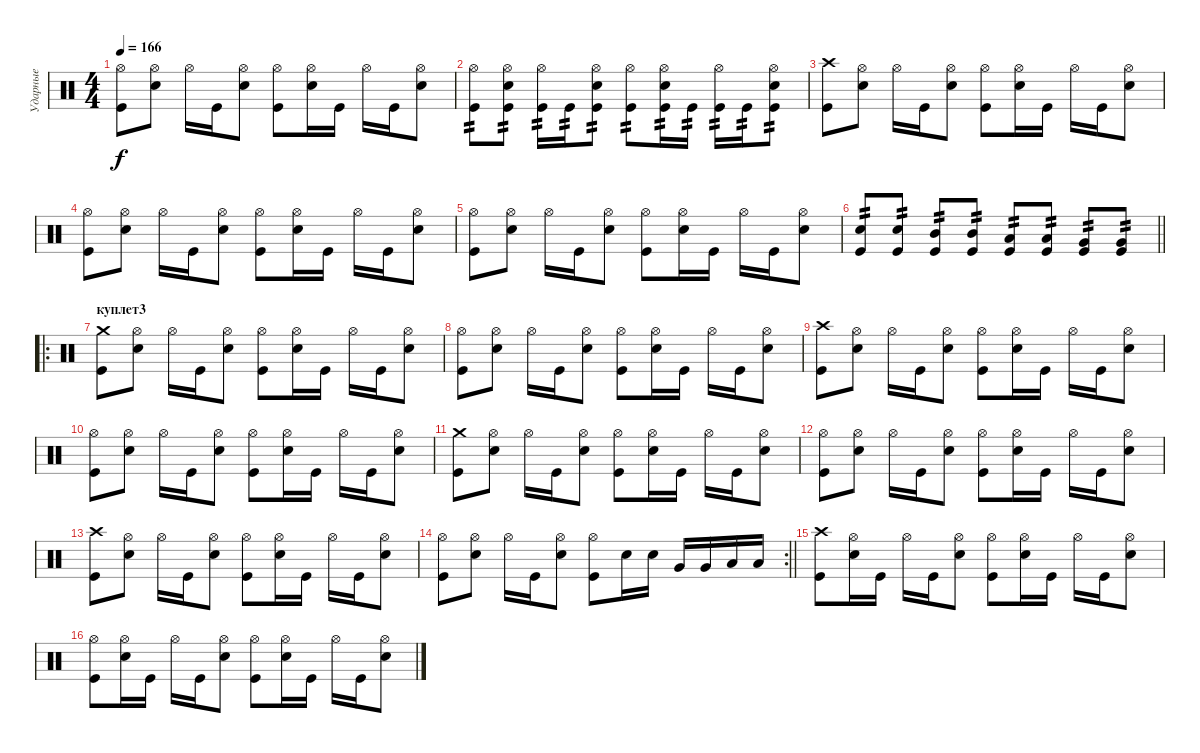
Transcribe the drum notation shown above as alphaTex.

\track ("Ударные" "Ударные") {instrument percussion}
\staff {score}
\articulation defaults
\ts (4 4)
\tempo 166
\clef neutral
\ks c
("Kick (hit)" "Hi-Hat (open)").8{dy f} ("Electric Snare (hit)" "Hi-Hat (open)").8 "Hi-Hat (open)".16 "Kick (hit)".16 ("Electric Snare (hit)" "Hi-Hat (open)").8 ("Kick (hit)" "Hi-Hat (open)").8 ("Electric Snare (hit)" "Hi-Hat (open)").16 "Kick (hit)".16 "Hi-Hat (open)".16 "Kick (hit)".16 ("Electric Snare (hit)" "Hi-Hat (open)").8 |
("Kick (hit)" "Hi-Hat (open)").8{tp 2} ("Electric Snare (hit)" "Hi-Hat (open)" "Kick (hit)").8{tp 2} ("Hi-Hat (open)" "Kick (hit)").16{tp 2} "Kick (hit)".16{tp 2} ("Electric Snare (hit)" "Hi-Hat (open)" "Kick (hit)").8{tp 2} ("Kick (hit)" "Hi-Hat (open)").8{tp 2} ("Electric Snare (hit)" "Hi-Hat (open)" "Kick (hit)").16{tp 2} "Kick (hit)".16{tp 2} ("Hi-Hat (open)" "Kick (hit)").16{tp 2} "Kick (hit)".16{tp 2} ("Electric Snare (hit)" "Hi-Hat (open)" "Kick (hit)").8{tp 2} |
("Kick (hit)" "Crash high (hit)").8 ("Electric Snare (hit)" "Hi-Hat (open)").8 "Hi-Hat (open)".16 "Kick (hit)".16 ("Electric Snare (hit)" "Hi-Hat (open)").8 ("Kick (hit)" "Hi-Hat (open)").8 ("Electric Snare (hit)" "Hi-Hat (open)").16 "Kick (hit)".16 "Hi-Hat (open)".16 "Kick (hit)".16 ("Electric Snare (hit)" "Hi-Hat (open)").8 |
("Kick (hit)" "Hi-Hat (open)").8 ("Electric Snare (hit)" "Hi-Hat (open)").8 "Hi-Hat (open)".16 "Kick (hit)".16 ("Electric Snare (hit)" "Hi-Hat (open)").8 ("Kick (hit)" "Hi-Hat (open)").8 ("Electric Snare (hit)" "Hi-Hat (open)").16 "Kick (hit)".16 "Hi-Hat (open)".16 "Kick (hit)".16 ("Electric Snare (hit)" "Hi-Hat (open)").8 |
("Kick (hit)" "Hi-Hat (open)").8 ("Electric Snare (hit)" "Hi-Hat (open)").8 "Hi-Hat (open)".16 "Kick (hit)".16 ("Electric Snare (hit)" "Hi-Hat (open)").8 ("Kick (hit)" "Hi-Hat (open)").8 ("Electric Snare (hit)" "Hi-Hat (open)").16 "Kick (hit)".16 "Hi-Hat (open)".16 "Kick (hit)".16 ("Electric Snare (hit)" "Hi-Hat (open)").8 |
\barLineRight lightlight
("Kick (hit)" "Electric Snare (hit)").8{tp 2} ("Kick (hit)" "Electric Snare (hit)").8{tp 2} ("Kick (hit)" "Mid Tom (hit)").8{tp 2} ("Kick (hit)" "Mid Tom (hit)").8{tp 2} ("Kick (hit)" "Low Tom (hit)").8{tp 2} ("Kick (hit)" "Low Tom (hit)").8{tp 2} ("Kick (hit)" "Very Low Tom (hit)").8{tp 2} ("Kick (hit)" "Very Low Tom (hit)").8{tp 2} |
\ro
\section ("" "куплет3")
("Kick (hit)" "Crash medium (hit)").8 ("Electric Snare (hit)" "Hi-Hat (open)").8 "Hi-Hat (open)".16 "Kick (hit)".16 ("Electric Snare (hit)" "Hi-Hat (open)").8 ("Kick (hit)" "Hi-Hat (open)").8 ("Electric Snare (hit)" "Hi-Hat (open)").16 "Kick (hit)".16 "Hi-Hat (open)".16 "Kick (hit)".16 ("Electric Snare (hit)" "Hi-Hat (open)").8 |
("Kick (hit)" "Hi-Hat (open)").8 ("Electric Snare (hit)" "Hi-Hat (open)").8 "Hi-Hat (open)".16 "Kick (hit)".16 ("Electric Snare (hit)" "Hi-Hat (open)").8 ("Kick (hit)" "Hi-Hat (open)").8 ("Electric Snare (hit)" "Hi-Hat (open)").16 "Kick (hit)".16 "Hi-Hat (open)".16 "Kick (hit)".16 ("Electric Snare (hit)" "Hi-Hat (open)").8 |
("Kick (hit)" "Crash high (hit)").8 ("Electric Snare (hit)" "Hi-Hat (open)").8 "Hi-Hat (open)".16 "Kick (hit)".16 ("Electric Snare (hit)" "Hi-Hat (open)").8 ("Kick (hit)" "Hi-Hat (open)").8 ("Electric Snare (hit)" "Hi-Hat (open)").16 "Kick (hit)".16 "Hi-Hat (open)".16 "Kick (hit)".16 ("Electric Snare (hit)" "Hi-Hat (open)").8 |
("Kick (hit)" "Hi-Hat (open)").8 ("Electric Snare (hit)" "Hi-Hat (open)").8 "Hi-Hat (open)".16 "Kick (hit)".16 ("Electric Snare (hit)" "Hi-Hat (open)").8 ("Kick (hit)" "Hi-Hat (open)").8 ("Electric Snare (hit)" "Hi-Hat (open)").16 "Kick (hit)".16 "Hi-Hat (open)".16 "Kick (hit)".16 ("Electric Snare (hit)" "Hi-Hat (open)").8 |
("Kick (hit)" "Crash medium (hit)").8 ("Electric Snare (hit)" "Hi-Hat (open)").8 "Hi-Hat (open)".16 "Kick (hit)".16 ("Electric Snare (hit)" "Hi-Hat (open)").8 ("Kick (hit)" "Hi-Hat (open)").8 ("Electric Snare (hit)" "Hi-Hat (open)").16 "Kick (hit)".16 "Hi-Hat (open)".16 "Kick (hit)".16 ("Electric Snare (hit)" "Hi-Hat (open)").8 |
("Kick (hit)" "Hi-Hat (open)").8 ("Electric Snare (hit)" "Hi-Hat (open)").8 "Hi-Hat (open)".16 "Kick (hit)".16 ("Electric Snare (hit)" "Hi-Hat (open)").8 ("Kick (hit)" "Hi-Hat (open)").8 ("Electric Snare (hit)" "Hi-Hat (open)").16 "Kick (hit)".16 "Hi-Hat (open)".16 "Kick (hit)".16 ("Electric Snare (hit)" "Hi-Hat (open)").8 |
("Kick (hit)" "Crash high (hit)").8 ("Electric Snare (hit)" "Hi-Hat (open)").8 "Hi-Hat (open)".16 "Kick (hit)".16 ("Electric Snare (hit)" "Hi-Hat (open)").8 ("Kick (hit)" "Hi-Hat (open)").8 ("Electric Snare (hit)" "Hi-Hat (open)").16 "Kick (hit)".16 "Hi-Hat (open)".16 "Kick (hit)".16 ("Electric Snare (hit)" "Hi-Hat (open)").8 |
\rc 2
\barLineRight lightlight
("Kick (hit)" "Hi-Hat (open)").8 ("Electric Snare (hit)" "Hi-Hat (open)").8 "Hi-Hat (open)".16 "Kick (hit)".16 ("Electric Snare (hit)" "Hi-Hat (open)").8 ("Kick (hit)" "Hi-Hat (open)").8 "Electric Snare (hit)".16 "Electric Snare (hit)".16 "Very Low Tom (hit)".16 "Very Low Tom (hit)".16 "Low Tom (hit)".16 "Low Tom (hit)".16 |
("Kick (hit)" "Crash high (hit)").8 ("Electric Snare (hit)" "Hi-Hat (open)").16 "Kick (hit)".16 "Hi-Hat (open)".16 "Kick (hit)".16 ("Electric Snare (hit)" "Hi-Hat (open)").8 ("Kick (hit)" "Hi-Hat (open)").8 ("Electric Snare (hit)" "Hi-Hat (open)").16 "Kick (hit)".16 "Hi-Hat (open)".16 "Kick (hit)".16 ("Electric Snare (hit)" "Hi-Hat (open)").8 |
("Kick (hit)" "Hi-Hat (open)").8 ("Electric Snare (hit)" "Hi-Hat (open)").16 "Kick (hit)".16 "Hi-Hat (open)".16 "Kick (hit)".16 ("Electric Snare (hit)" "Hi-Hat (open)").8 ("Kick (hit)" "Hi-Hat (open)").8 ("Electric Snare (hit)" "Hi-Hat (open)").16 "Kick (hit)".16 "Hi-Hat (open)".16 "Kick (hit)".16 ("Electric Snare (hit)" "Hi-Hat (open)").8
